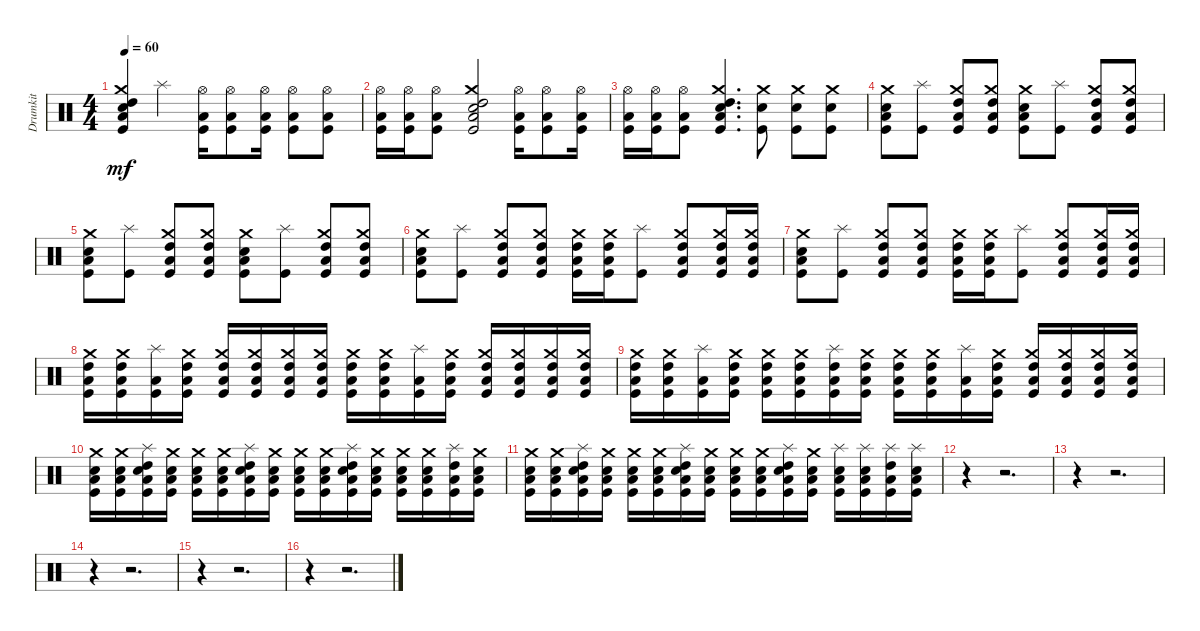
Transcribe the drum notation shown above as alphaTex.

\track ("Drumkit" "Drumkit") {instrument percussion}
\staff {score}
\articulation defaults
\ts (4 4)
\tempo 60
\clef neutral
\ks c
("Kick (hit)" "Snare (hit) 2" "Crash medium (hit)" "High Tom (hit)" "Low Tom (hit)").4{dy mf} "Splash (hit)".4 ("Kick (hit)" "Low Tom (hit)" "Hi-Hat (open)").16 ("Kick (hit)" "Low Tom (hit)" "Hi-Hat (open)").8 ("Kick (hit)" "Low Tom (hit)" "Hi-Hat (open)").16 ("Kick (hit)" "Low Tom (hit)" "Hi-Hat (open)").8 ("Kick (hit)" "Low Tom (hit)" "Hi-Hat (open)").8 |
("Kick (hit)" "Low Tom (hit)" "Hi-Hat (open)").16 ("Kick (hit)" "Low Tom (hit)" "Hi-Hat (open)").16 ("Kick (hit)" "Low Tom (hit)" "Hi-Hat (open)").8 ("Kick (hit)" "Snare (hit) 2" "Crash medium (hit)" "High Tom (hit)" "Low Tom (hit)").2 ("Kick (hit)" "Low Tom (hit)" "Hi-Hat (open)").16 ("Kick (hit)" "Low Tom (hit)" "Hi-Hat (open)").8 ("Kick (hit)" "Low Tom (hit)" "Hi-Hat (open)").16 |
("Kick (hit)" "Low Tom (hit)" "Hi-Hat (open)").16 ("Kick (hit)" "Low Tom (hit)" "Hi-Hat (open)").16 ("Kick (hit)" "Low Tom (hit)" "Hi-Hat (open)").8 ("Kick (hit)" "Snare (hit) 2" "Crash medium (hit)" "High Tom (hit)" "Low Tom (hit)").4{d} ("Kick (hit)" "Snare (hit) 2" "Crash medium (hit)").8 ("Kick (hit)" "Snare (hit) 2" "Crash medium (hit)").8 ("Kick (hit)" "Snare (hit) 2" "Crash medium (hit)").8 |
("Kick (hit)" "Snare (hit) 2" "Crash medium (hit)" "Low Tom (hit)").8 ("Kick (hit)" "Splash (hit)").8 ("Kick (hit)" "Crash medium (hit)" "Low Tom (hit)" "High Tom (hit)").8 ("Kick (hit)" "Crash medium (hit)" "Low Tom (hit)" "High Tom (hit)").8 ("Kick (hit)" "Snare (hit) 2" "Crash medium (hit)" "Low Tom (hit)").8 ("Kick (hit)" "Splash (hit)").8 ("Kick (hit)" "Crash medium (hit)" "Low Tom (hit)" "High Tom (hit)").8 ("Kick (hit)" "Crash medium (hit)" "Low Tom (hit)" "High Tom (hit)").8 |
("Kick (hit)" "Snare (hit) 2" "Crash medium (hit)" "Low Tom (hit)").8 ("Kick (hit)" "Splash (hit)").8 ("Kick (hit)" "Crash medium (hit)" "Low Tom (hit)" "High Tom (hit)").8 ("Kick (hit)" "Crash medium (hit)" "Low Tom (hit)" "High Tom (hit)").8 ("Kick (hit)" "Snare (hit) 2" "Crash medium (hit)" "Low Tom (hit)").8 ("Kick (hit)" "Splash (hit)").8 ("Kick (hit)" "Crash medium (hit)" "Low Tom (hit)" "High Tom (hit)").8 ("Kick (hit)" "Crash medium (hit)" "Low Tom (hit)" "High Tom (hit)").8 |
("Kick (hit)" "Snare (hit) 2" "Crash medium (hit)" "Low Tom (hit)").8 ("Kick (hit)" "Splash (hit)").8 ("Kick (hit)" "Crash medium (hit)" "Low Tom (hit)" "High Tom (hit)").8 ("Kick (hit)" "Crash medium (hit)" "Low Tom (hit)" "High Tom (hit)").8 ("Kick (hit)" "Crash medium (hit)" "Low Tom (hit)" "High Tom (hit)").16 ("Kick (hit)" "Crash medium (hit)" "Low Tom (hit)" "High Tom (hit)").16 ("Kick (hit)" "Splash (hit)").8 ("Kick (hit)" "Crash medium (hit)" "Low Tom (hit)" "High Tom (hit)").8 ("Kick (hit)" "Crash medium (hit)" "Low Tom (hit)" "High Tom (hit)").16 ("Kick (hit)" "Crash medium (hit)" "Low Tom (hit)" "High Tom (hit)").16 |
("Kick (hit)" "Snare (hit) 2" "Crash medium (hit)" "Low Tom (hit)").8 ("Kick (hit)" "Splash (hit)").8 ("Kick (hit)" "Crash medium (hit)" "Low Tom (hit)" "High Tom (hit)").8 ("Kick (hit)" "Crash medium (hit)" "Low Tom (hit)" "High Tom (hit)").8 ("Kick (hit)" "Crash medium (hit)" "Low Tom (hit)" "High Tom (hit)").16 ("Kick (hit)" "Crash medium (hit)" "Low Tom (hit)" "High Tom (hit)").16 ("Kick (hit)" "Splash (hit)").8 ("Kick (hit)" "Crash medium (hit)" "Low Tom (hit)" "High Tom (hit)").8 ("Kick (hit)" "Crash medium (hit)" "Low Tom (hit)" "High Tom (hit)").16 ("Kick (hit)" "Crash medium (hit)" "Low Tom (hit)" "High Tom (hit)").16 |
("Kick (hit)" "Crash medium (hit)" "Low Tom (hit)" "High Tom (hit)").16 ("Kick (hit)" "Crash medium (hit)" "Low Tom (hit)" "High Tom (hit)").16 ("Kick (hit)" "Low Tom (hit)" "Splash (hit)").16 ("Kick (hit)" "Crash medium (hit)" "Low Tom (hit)" "High Tom (hit)").16 ("Kick (hit)" "Crash medium (hit)" "Low Tom (hit)" "High Tom (hit)").16 ("Kick (hit)" "Crash medium (hit)" "Low Tom (hit)" "High Tom (hit)").16 ("Kick (hit)" "Crash medium (hit)" "Low Tom (hit)" "High Tom (hit)").16 ("Kick (hit)" "Crash medium (hit)" "Low Tom (hit)" "High Tom (hit)").16 ("Kick (hit)" "Crash medium (hit)" "Low Tom (hit)" "High Tom (hit)").16 ("Kick (hit)" "Crash medium (hit)" "Low Tom (hit)" "High Tom (hit)").16 ("Kick (hit)" "Low Tom (hit)" "Splash (hit)").16 ("Kick (hit)" "Crash medium (hit)" "Low Tom (hit)" "High Tom (hit)").16 ("Kick (hit)" "Crash medium (hit)" "Low Tom (hit)" "High Tom (hit)").16 ("Kick (hit)" "Crash medium (hit)" "Low Tom (hit)" "High Tom (hit)").16 ("Kick (hit)" "Crash medium (hit)" "Low Tom (hit)" "High Tom (hit)").16 ("Kick (hit)" "Crash medium (hit)" "Low Tom (hit)" "High Tom (hit)").16 |
("Kick (hit)" "Crash medium (hit)" "Low Tom (hit)" "High Tom (hit)").16 ("Kick (hit)" "Crash medium (hit)" "Low Tom (hit)" "High Tom (hit)").16 ("Kick (hit)" "Low Tom (hit)" "Splash (hit)").16 ("Kick (hit)" "Crash medium (hit)" "Low Tom (hit)" "High Tom (hit)").16 ("Kick (hit)" "Crash medium (hit)" "Low Tom (hit)" "High Tom (hit)").16 ("Kick (hit)" "Crash medium (hit)" "Low Tom (hit)" "High Tom (hit)").16 ("Kick (hit)" "Low Tom (hit)" "High Tom (hit)" "Splash (hit)").16 ("Kick (hit)" "Crash medium (hit)" "Low Tom (hit)" "High Tom (hit)").16 ("Kick (hit)" "Crash medium (hit)" "Low Tom (hit)" "High Tom (hit)").16 ("Kick (hit)" "Crash medium (hit)" "Low Tom (hit)" "High Tom (hit)").16 ("Kick (hit)" "Low Tom (hit)" "Splash (hit)").16 ("Kick (hit)" "Crash medium (hit)" "Low Tom (hit)" "High Tom (hit)").16 ("Kick (hit)" "Crash medium (hit)" "Low Tom (hit)" "High Tom (hit)").16 ("Kick (hit)" "Crash medium (hit)" "Low Tom (hit)" "High Tom (hit)").16 ("Kick (hit)" "Crash medium (hit)" "Low Tom (hit)" "High Tom (hit)").16 ("Kick (hit)" "Crash medium (hit)" "Low Tom (hit)" "High Tom (hit)").16 |
("Kick (hit)" "Crash medium (hit)" "Low Tom (hit)" "Snare (hit) 2").16 ("Kick (hit)" "Crash medium (hit)" "Low Tom (hit)" "Snare (hit) 2").16 ("Kick (hit)" "Low Tom (hit)" "Snare (hit) 2" "Splash (hit)" "High Tom (hit)").16 ("Kick (hit)" "Crash medium (hit)" "Low Tom (hit)" "Snare (hit) 2").16 ("Kick (hit)" "Crash medium (hit)" "Low Tom (hit)" "Snare (hit) 2").16 ("Kick (hit)" "Crash medium (hit)" "Low Tom (hit)" "Snare (hit) 2").16 ("Kick (hit)" "Low Tom (hit)" "Snare (hit) 2" "High Tom (hit)" "Splash (hit)").16 ("Kick (hit)" "Crash medium (hit)" "Low Tom (hit)" "Snare (hit) 2").16 ("Kick (hit)" "Crash medium (hit)" "Low Tom (hit)" "Snare (hit) 2").16 ("Kick (hit)" "Crash medium (hit)" "Low Tom (hit)" "Snare (hit) 2").16 ("Kick (hit)" "Low Tom (hit)" "Snare (hit) 2" "Splash (hit)" "High Tom (hit)").16 ("Kick (hit)" "Crash medium (hit)" "Low Tom (hit)" "Snare (hit) 2").16 ("Kick (hit)" "Crash medium (hit)" "Low Tom (hit)" "Snare (hit) 2").16 ("Kick (hit)" "Crash medium (hit)" "Low Tom (hit)" "Snare (hit) 2").16 ("Kick (hit)" "Low Tom (hit)" "High Tom (hit)" "Splash (hit)").16 ("Kick (hit)" "Crash medium (hit)" "Low Tom (hit)" "Snare (hit) 2").16 |
("Kick (hit)" "Crash medium (hit)" "Low Tom (hit)" "Snare (hit) 2").16 ("Kick (hit)" "Crash medium (hit)" "Low Tom (hit)" "Snare (hit) 2").16 ("Kick (hit)" "Low Tom (hit)" "Snare (hit) 2" "Splash (hit)" "High Tom (hit)").16 ("Kick (hit)" "Crash medium (hit)" "Low Tom (hit)" "Snare (hit) 2").16 ("Kick (hit)" "Crash medium (hit)" "Low Tom (hit)" "Snare (hit) 2").16 ("Kick (hit)" "Crash medium (hit)" "Low Tom (hit)" "Snare (hit) 2").16 ("Kick (hit)" "Low Tom (hit)" "Snare (hit) 2" "High Tom (hit)" "Splash (hit)").16 ("Kick (hit)" "Crash medium (hit)" "Low Tom (hit)" "Snare (hit) 2").16 ("Kick (hit)" "Crash medium (hit)" "Low Tom (hit)" "Snare (hit) 2").16 ("Kick (hit)" "Crash medium (hit)" "Low Tom (hit)" "Snare (hit) 2").16 ("Kick (hit)" "Low Tom (hit)" "Snare (hit) 2" "Splash (hit)" "High Tom (hit)").16 ("Kick (hit)" "Crash medium (hit)" "Low Tom (hit)" "Snare (hit) 2").16 ("Kick (hit)" "Low Tom (hit)" "Snare (hit) 2" "Splash (hit)").16 ("Kick (hit)" "Low Tom (hit)" "Snare (hit) 2" "Splash (hit)").16 ("Kick (hit)" "Low Tom (hit)" "High Tom (hit)" "Splash (hit)").16 ("Kick (hit)" "Low Tom (hit)" "Snare (hit) 2" "Splash (hit)").16 |
r.4 r.2{d} |
r.4 r.2{d} |
r.4 r.2{d} |
r.4 r.2{d} |
r.4 r.2{d}
